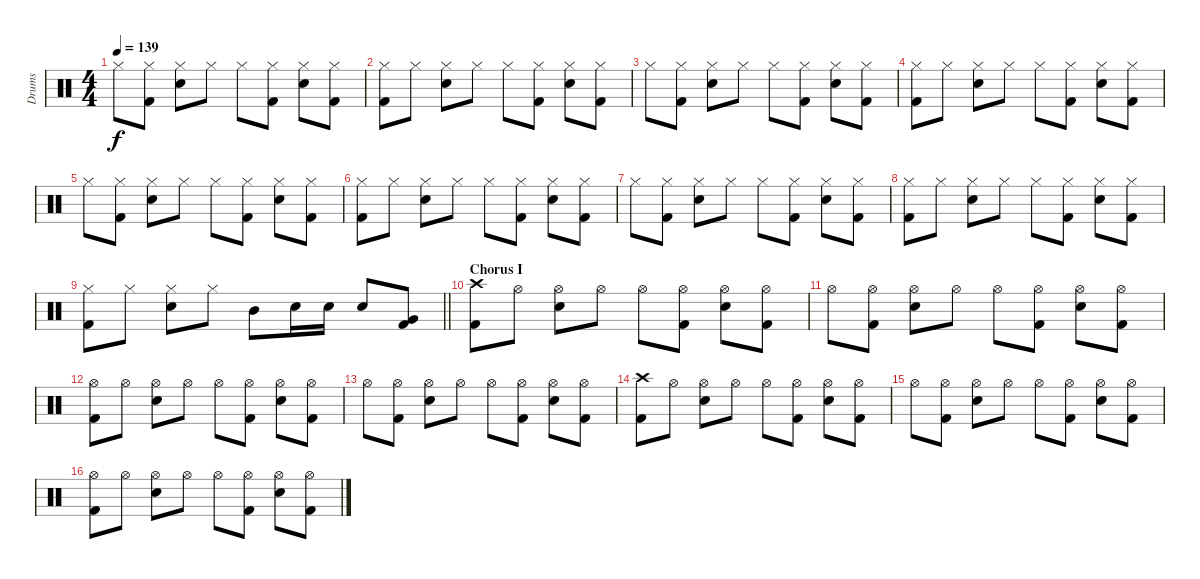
\track ("Drums" "Drums") {instrument percussion}
\staff {score}
\articulation defaults
\ts (4 4)
\tempo 139
\clef neutral
\ks c "Hi-Hat (closed)".8{dy f}
("Hi-Hat (closed)" "Kick (hit) 2").8 ("Hi-Hat (closed)" "Snare (hit) 2").8 "Hi-Hat (closed)".8 "Hi-Hat (closed)".8 ("Hi-Hat (closed)" "Kick (hit) 2").8 ("Hi-Hat (closed)" "Snare (hit) 2").8 ("Hi-Hat (closed)" "Kick (hit) 2").8 |
("Hi-Hat (closed)" "Kick (hit) 2").8 "Hi-Hat (closed)".8 ("Hi-Hat (closed)" "Snare (hit) 2").8 "Hi-Hat (closed)".8 "Hi-Hat (closed)".8 ("Hi-Hat (closed)" "Kick (hit) 2").8 ("Hi-Hat (closed)" "Snare (hit) 2").8 ("Hi-Hat (closed)" "Kick (hit) 2").8 |
"Hi-Hat (closed)".8 ("Hi-Hat (closed)" "Kick (hit) 2").8 ("Hi-Hat (closed)" "Snare (hit) 2").8 "Hi-Hat (closed)".8 "Hi-Hat (closed)".8 ("Hi-Hat (closed)" "Kick (hit) 2").8 ("Hi-Hat (closed)" "Snare (hit) 2").8 ("Hi-Hat (closed)" "Kick (hit) 2").8 |
("Hi-Hat (closed)" "Kick (hit) 2").8 "Hi-Hat (closed)".8 ("Hi-Hat (closed)" "Snare (hit) 2").8 "Hi-Hat (closed)".8 "Hi-Hat (closed)".8 ("Hi-Hat (closed)" "Kick (hit) 2").8 ("Hi-Hat (closed)" "Snare (hit) 2").8 ("Hi-Hat (closed)" "Kick (hit) 2").8 |
"Hi-Hat (closed)".8 ("Hi-Hat (closed)" "Kick (hit) 2").8 ("Hi-Hat (closed)" "Snare (hit) 2").8 "Hi-Hat (closed)".8 "Hi-Hat (closed)".8 ("Hi-Hat (closed)" "Kick (hit) 2").8 ("Hi-Hat (closed)" "Snare (hit) 2").8 ("Hi-Hat (closed)" "Kick (hit) 2").8 |
("Hi-Hat (closed)" "Kick (hit) 2").8 "Hi-Hat (closed)".8 ("Hi-Hat (closed)" "Snare (hit) 2").8 "Hi-Hat (closed)".8 "Hi-Hat (closed)".8 ("Hi-Hat (closed)" "Kick (hit) 2").8 ("Hi-Hat (closed)" "Snare (hit) 2").8 ("Hi-Hat (closed)" "Kick (hit) 2").8 |
"Hi-Hat (closed)".8 ("Hi-Hat (closed)" "Kick (hit) 2").8 ("Hi-Hat (closed)" "Snare (hit) 2").8 "Hi-Hat (closed)".8 "Hi-Hat (closed)".8 ("Hi-Hat (closed)" "Kick (hit) 2").8 ("Hi-Hat (closed)" "Snare (hit) 2").8 ("Hi-Hat (closed)" "Kick (hit) 2").8 |
("Hi-Hat (closed)" "Kick (hit) 2").8 "Hi-Hat (closed)".8 ("Hi-Hat (closed)" "Snare (hit) 2").8 "Hi-Hat (closed)".8 "Hi-Hat (closed)".8 ("Hi-Hat (closed)" "Kick (hit) 2").8 ("Hi-Hat (closed)" "Snare (hit) 2").8 ("Hi-Hat (closed)" "Kick (hit) 2").8 |
\barLineRight lightlight
("Hi-Hat (closed)" "Kick (hit) 2").8 "Hi-Hat (closed)".8 ("Hi-Hat (closed)" "Snare (hit) 2").8 "Hi-Hat (closed)".8 "Mid Tom (hit)".8 "Snare (hit) 2".16 "Snare (hit) 2".16 "Snare (hit) 2".8 ("Very Low Tom (hit)" "Kick (hit) 2").8 |
\section ("" "Chorus I")
("Crash high (hit)" "Kick (hit) 2").8 "Hi-Hat (open)".8 ("Hi-Hat (open)" "Snare (hit) 2").8 "Hi-Hat (open)".8 "Hi-Hat (open)".8 ("Hi-Hat (open)" "Kick (hit) 2").8 ("Hi-Hat (open)" "Snare (hit) 2").8 ("Hi-Hat (open)" "Kick (hit) 2").8 |
"Hi-Hat (open)".8 ("Hi-Hat (open)" "Kick (hit) 2").8 ("Hi-Hat (open)" "Snare (hit) 2").8 "Hi-Hat (open)".8 "Hi-Hat (open)".8 ("Hi-Hat (open)" "Kick (hit) 2").8 ("Hi-Hat (open)" "Snare (hit) 2").8 ("Hi-Hat (open)" "Kick (hit) 2").8 |
("Hi-Hat (open)" "Kick (hit) 2").8 "Hi-Hat (open)".8 ("Hi-Hat (open)" "Snare (hit) 2").8 "Hi-Hat (open)".8 "Hi-Hat (open)".8 ("Hi-Hat (open)" "Kick (hit) 2").8 ("Hi-Hat (open)" "Snare (hit) 2").8 ("Hi-Hat (open)" "Kick (hit) 2").8 |
"Hi-Hat (open)".8 ("Hi-Hat (open)" "Kick (hit) 2").8 ("Hi-Hat (open)" "Snare (hit) 2").8 "Hi-Hat (open)".8 "Hi-Hat (open)".8 ("Hi-Hat (open)" "Kick (hit) 2").8 ("Hi-Hat (open)" "Snare (hit) 2").8 ("Hi-Hat (open)" "Kick (hit) 2").8 |
("Crash high (hit)" "Kick (hit) 2").8 "Hi-Hat (open)".8 ("Hi-Hat (open)" "Snare (hit) 2").8 "Hi-Hat (open)".8 "Hi-Hat (open)".8 ("Hi-Hat (open)" "Kick (hit) 2").8 ("Hi-Hat (open)" "Snare (hit) 2").8 ("Hi-Hat (open)" "Kick (hit) 2").8 |
"Hi-Hat (open)".8 ("Hi-Hat (open)" "Kick (hit) 2").8 ("Hi-Hat (open)" "Snare (hit) 2").8 "Hi-Hat (open)".8 "Hi-Hat (open)".8 ("Hi-Hat (open)" "Kick (hit) 2").8 ("Hi-Hat (open)" "Snare (hit) 2").8 ("Hi-Hat (open)" "Kick (hit) 2").8 |
("Hi-Hat (open)" "Kick (hit) 2").8 "Hi-Hat (open)".8 ("Hi-Hat (open)" "Snare (hit) 2").8 "Hi-Hat (open)".8 "Hi-Hat (open)".8 ("Hi-Hat (open)" "Kick (hit) 2").8 ("Hi-Hat (open)" "Snare (hit) 2").8 ("Hi-Hat (open)" "Kick (hit) 2").8
